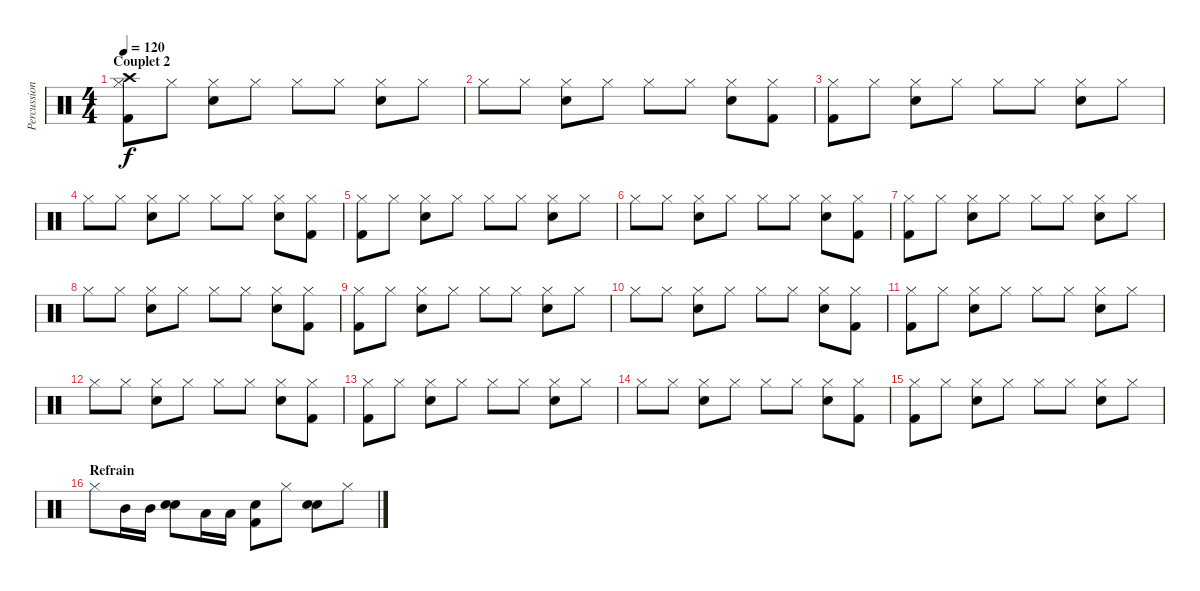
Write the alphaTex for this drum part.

\track ("Percussions" "Percussion") {instrument percussion}
\staff {score}
\articulation defaults
\ts (4 4)
\section ("" "Couplet 2")
\tempo 120
\clef neutral
\ks c
("Crash high (hit)" "Hi-Hat (closed)" "Kick (hit) 2").8{dy f} "Hi-Hat (closed)".8 ("Hi-Hat (closed)" "Electric Snare (hit)").8 "Hi-Hat (closed)".8 "Hi-Hat (closed)".8 "Hi-Hat (closed)".8 ("Hi-Hat (closed)" "Electric Snare (hit)").8 "Hi-Hat (closed)".8 |
"Hi-Hat (closed)".8 "Hi-Hat (closed)".8 ("Hi-Hat (closed)" "Electric Snare (hit)").8 "Hi-Hat (closed)".8 "Hi-Hat (closed)".8 "Hi-Hat (closed)".8 ("Hi-Hat (closed)" "Electric Snare (hit)").8 ("Hi-Hat (closed)" "Kick (hit) 2").8 |
("Hi-Hat (closed)" "Kick (hit) 2").8 "Hi-Hat (closed)".8 ("Hi-Hat (closed)" "Electric Snare (hit)").8 "Hi-Hat (closed)".8 "Hi-Hat (closed)".8 "Hi-Hat (closed)".8 ("Hi-Hat (closed)" "Electric Snare (hit)").8 "Hi-Hat (closed)".8 |
"Hi-Hat (closed)".8 "Hi-Hat (closed)".8 ("Hi-Hat (closed)" "Electric Snare (hit)").8 "Hi-Hat (closed)".8 "Hi-Hat (closed)".8 "Hi-Hat (closed)".8 ("Hi-Hat (closed)" "Electric Snare (hit)").8 ("Hi-Hat (closed)" "Kick (hit) 2").8 |
("Hi-Hat (closed)" "Kick (hit) 2").8 "Hi-Hat (closed)".8 ("Hi-Hat (closed)" "Electric Snare (hit)").8 "Hi-Hat (closed)".8 "Hi-Hat (closed)".8 "Hi-Hat (closed)".8 ("Hi-Hat (closed)" "Electric Snare (hit)").8 "Hi-Hat (closed)".8 |
"Hi-Hat (closed)".8 "Hi-Hat (closed)".8 ("Hi-Hat (closed)" "Electric Snare (hit)").8 "Hi-Hat (closed)".8 "Hi-Hat (closed)".8 "Hi-Hat (closed)".8 ("Hi-Hat (closed)" "Electric Snare (hit)").8 ("Hi-Hat (closed)" "Kick (hit) 2").8 |
("Hi-Hat (closed)" "Kick (hit) 2").8 "Hi-Hat (closed)".8 ("Hi-Hat (closed)" "Electric Snare (hit)").8 "Hi-Hat (closed)".8 "Hi-Hat (closed)".8 "Hi-Hat (closed)".8 ("Hi-Hat (closed)" "Electric Snare (hit)").8 "Hi-Hat (closed)".8 |
"Hi-Hat (closed)".8 "Hi-Hat (closed)".8 ("Hi-Hat (closed)" "Electric Snare (hit)").8 "Hi-Hat (closed)".8 "Hi-Hat (closed)".8 "Hi-Hat (closed)".8 ("Hi-Hat (closed)" "Electric Snare (hit)").8 ("Hi-Hat (closed)" "Kick (hit) 2").8 |
("Hi-Hat (closed)" "Kick (hit) 2").8 "Hi-Hat (closed)".8 ("Hi-Hat (closed)" "Electric Snare (hit)").8 "Hi-Hat (closed)".8 "Hi-Hat (closed)".8 "Hi-Hat (closed)".8 ("Hi-Hat (closed)" "Electric Snare (hit)").8 "Hi-Hat (closed)".8 |
"Hi-Hat (closed)".8 "Hi-Hat (closed)".8 ("Hi-Hat (closed)" "Electric Snare (hit)").8 "Hi-Hat (closed)".8 "Hi-Hat (closed)".8 "Hi-Hat (closed)".8 ("Hi-Hat (closed)" "Electric Snare (hit)").8 ("Hi-Hat (closed)" "Kick (hit) 2").8 |
("Hi-Hat (closed)" "Kick (hit) 2").8 "Hi-Hat (closed)".8 ("Hi-Hat (closed)" "Electric Snare (hit)").8 "Hi-Hat (closed)".8 "Hi-Hat (closed)".8 "Hi-Hat (closed)".8 ("Hi-Hat (closed)" "Electric Snare (hit)").8 "Hi-Hat (closed)".8 |
"Hi-Hat (closed)".8 "Hi-Hat (closed)".8 ("Hi-Hat (closed)" "Electric Snare (hit)").8 "Hi-Hat (closed)".8 "Hi-Hat (closed)".8 "Hi-Hat (closed)".8 ("Hi-Hat (closed)" "Electric Snare (hit)").8 ("Hi-Hat (closed)" "Kick (hit) 2").8 |
("Hi-Hat (closed)" "Kick (hit) 2").8 "Hi-Hat (closed)".8 ("Hi-Hat (closed)" "Electric Snare (hit)").8 "Hi-Hat (closed)".8 "Hi-Hat (closed)".8 "Hi-Hat (closed)".8 ("Hi-Hat (closed)" "Electric Snare (hit)").8 "Hi-Hat (closed)".8 |
"Hi-Hat (closed)".8 "Hi-Hat (closed)".8 ("Hi-Hat (closed)" "Electric Snare (hit)").8 "Hi-Hat (closed)".8 "Hi-Hat (closed)".8 "Hi-Hat (closed)".8 ("Hi-Hat (closed)" "Electric Snare (hit)").8 ("Hi-Hat (closed)" "Kick (hit) 2").8 |
("Hi-Hat (closed)" "Kick (hit) 2").8 "Hi-Hat (closed)".8 ("Hi-Hat (closed)" "Electric Snare (hit)").8 "Hi-Hat (closed)".8 "Hi-Hat (closed)".8 "Hi-Hat (closed)".8 ("Hi-Hat (closed)" "Electric Snare (hit)").8 "Hi-Hat (closed)".8 |
\section ("" "Refrain")
"Hi-Hat (closed)".8 "Mid Tom (hit)".16 "Mid Tom (hit)".16 ("Electric Snare (hit)" "Electric Snare (hit)").8 "Low Tom (hit)".16 "Low Tom (hit)".16 ("Snare (hit) 2" "Kick (hit) 2").8 "Hi-Hat (closed)".8 ("Electric Snare (hit)" "Electric Snare (hit)").8 "Hi-Hat (closed)".8
